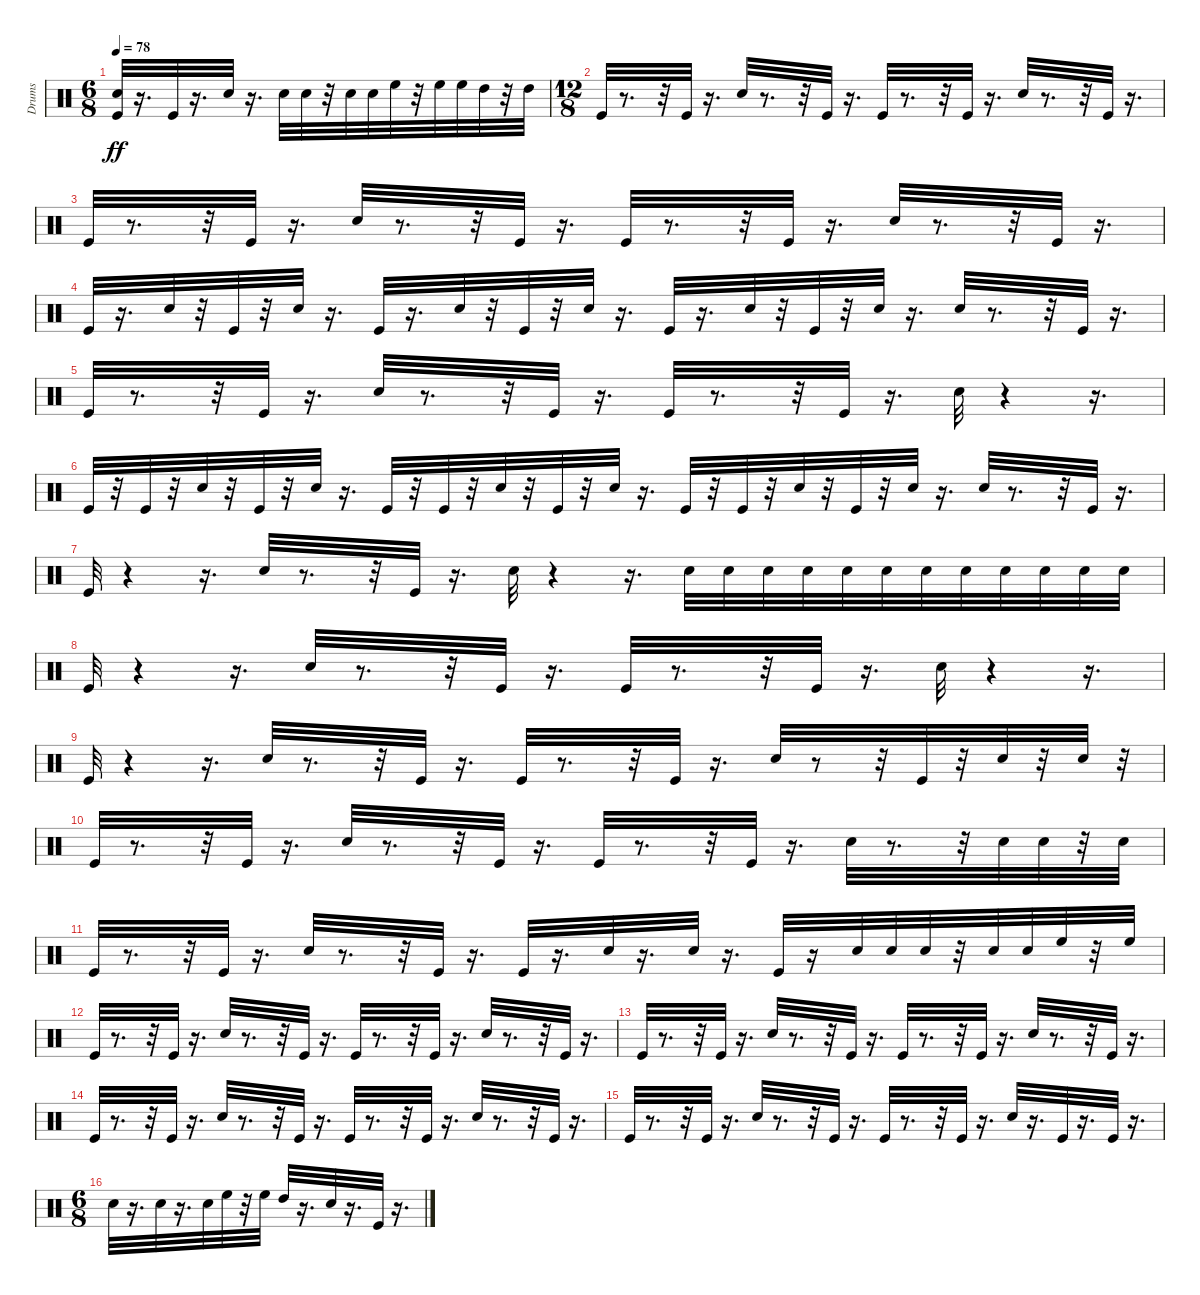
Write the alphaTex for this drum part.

\track ("Drums" "Drums") {instrument percussion}
\staff {score}
\articulation defaults
\ts (6 8)
\tempo 78
\clef neutral
\ks c
("Electric Snare (hit)" "Kick (hit)").32{dy ff} r.16{d} "Kick (hit)".32 r.16{d} "Electric Snare (hit)".32 r.16{d} "Electric Snare (hit)".32 "Electric Snare (hit)".32 r.32 "Electric Snare (hit)".32 "Electric Snare (hit)".32 "High Floor Tom (hit)".32 r.32 "High Floor Tom (hit)".32 "High Floor Tom (hit)".32 "High Tom (hit)".32 r.32 "High Tom (hit)".32 |
\ts (12 8)
"Kick (hit)".32 r.8{d} r.32 "Kick (hit)".32 r.16{d} "Electric Snare (hit)".32 r.8{d} r.32 "Kick (hit)".32 r.16{d} "Kick (hit)".32 r.8{d} r.32 "Kick (hit)".32 r.16{d} "Electric Snare (hit)".32 r.8{d} r.32 "Kick (hit)".32 r.16{d} |
"Kick (hit)".32 r.8{d} r.32 "Kick (hit)".32 r.16{d} "Electric Snare (hit)".32 r.8{d} r.32 "Kick (hit)".32 r.16{d} "Kick (hit)".32 r.8{d} r.32 "Kick (hit)".32 r.16{d} "Electric Snare (hit)".32 r.8{d} r.32 "Kick (hit)".32 r.16{d} |
"Kick (hit)".32 r.16{d} "Electric Snare (hit)".32 r.32 "Kick (hit)".32 r.32 "Electric Snare (hit)".32 r.16{d} "Kick (hit)".32 r.16{d} "Electric Snare (hit)".32 r.32 "Kick (hit)".32 r.32 "Electric Snare (hit)".32 r.16{d} "Kick (hit)".32 r.16{d} "Electric Snare (hit)".32 r.32 "Kick (hit)".32 r.32 "Electric Snare (hit)".32 r.16{d} "Electric Snare (hit)".32 r.8{d} r.32 "Kick (hit)".32 r.16{d} |
"Kick (hit)".32 r.8{d} r.32 "Kick (hit)".32 r.16{d} "Electric Snare (hit)".32 r.8{d} r.32 "Kick (hit)".32 r.16{d} "Kick (hit)".32 r.8{d} r.32 "Kick (hit)".32 r.16{d} "Electric Snare (hit)".32 r.4 r.16{d} |
"Kick (hit)".32 r.32 "Kick (hit)".32 r.32 "Electric Snare (hit)".32 r.32 "Kick (hit)".32 r.32 "Electric Snare (hit)".32 r.16{d} "Kick (hit)".32 r.32 "Kick (hit)".32 r.32 "Electric Snare (hit)".32 r.32 "Kick (hit)".32 r.32 "Electric Snare (hit)".32 r.16{d} "Kick (hit)".32 r.32 "Kick (hit)".32 r.32 "Electric Snare (hit)".32 r.32 "Kick (hit)".32 r.32 "Electric Snare (hit)".32 r.16{d} "Electric Snare (hit)".32 r.8{d} r.32 "Kick (hit)".32 r.16{d} |
"Kick (hit)".32 r.4 r.16{d} "Electric Snare (hit)".32 r.8{d} r.32 "Kick (hit)".32 r.16{d} "Electric Snare (hit)".32 r.4 r.16{d} "Electric Snare (hit)".32 "Electric Snare (hit)".32 "Electric Snare (hit)".32 "Electric Snare (hit)".32 "Electric Snare (hit)".32 "Electric Snare (hit)".32 "Electric Snare (hit)".32 "Electric Snare (hit)".32 "Electric Snare (hit)".32 "Electric Snare (hit)".32 "Electric Snare (hit)".32 "Electric Snare (hit)".32 |
"Kick (hit)".32 r.4 r.16{d} "Electric Snare (hit)".32 r.8{d} r.32 "Kick (hit)".32 r.16{d} "Kick (hit)".32 r.8{d} r.32 "Kick (hit)".32 r.16{d} "Electric Snare (hit)".32 r.4 r.16{d} |
"Kick (hit)".32 r.4 r.16{d} "Electric Snare (hit)".32 r.8{d} r.32 "Kick (hit)".32 r.16{d} "Kick (hit)".32 r.8{d} r.32 "Kick (hit)".32 r.16{d} "Electric Snare (hit)".32 r.8 r.32 "Kick (hit)".32 r.32 "Electric Snare (hit)".32 r.32 "Electric Snare (hit)".32 r.32 |
"Kick (hit)".32 r.8{d} r.32 "Kick (hit)".32 r.16{d} "Electric Snare (hit)".32 r.8{d} r.32 "Kick (hit)".32 r.16{d} "Kick (hit)".32 r.8{d} r.32 "Kick (hit)".32 r.16{d} "Electric Snare (hit)".32 r.8{d} r.32 "Electric Snare (hit)".32 "Electric Snare (hit)".32 r.32 "Electric Snare (hit)".32 |
"Kick (hit)".32 r.8{d} r.32 "Kick (hit)".32 r.16{d} "Electric Snare (hit)".32 r.8{d} r.32 "Kick (hit)".32 r.16{d} "Kick (hit)".32 r.16{d} "Electric Snare (hit)".32 r.16{d} "Electric Snare (hit)".32 r.16{d} "Kick (hit)".32 r.16 "Electric Snare (hit)".32 "Electric Snare (hit)".32 "Electric Snare (hit)".32 r.32 "Electric Snare (hit)".32 "Electric Snare (hit)".32 "High Floor Tom (hit)".32 r.32 "High Floor Tom (hit)".32 |
"Kick (hit)".32 r.8{d} r.32 "Kick (hit)".32 r.16{d} "Electric Snare (hit)".32 r.8{d} r.32 "Kick (hit)".32 r.16{d} "Kick (hit)".32 r.8{d} r.32 "Kick (hit)".32 r.16{d} "Electric Snare (hit)".32 r.8{d} r.32 "Kick (hit)".32 r.16{d} |
"Kick (hit)".32 r.8{d} r.32 "Kick (hit)".32 r.16{d} "Electric Snare (hit)".32 r.8{d} r.32 "Kick (hit)".32 r.16{d} "Kick (hit)".32 r.8{d} r.32 "Kick (hit)".32 r.16{d} "Electric Snare (hit)".32 r.8{d} r.32 "Kick (hit)".32 r.16{d} |
"Kick (hit)".32 r.8{d} r.32 "Kick (hit)".32 r.16{d} "Electric Snare (hit)".32 r.8{d} r.32 "Kick (hit)".32 r.16{d} "Kick (hit)".32 r.8{d} r.32 "Kick (hit)".32 r.16{d} "Electric Snare (hit)".32 r.8{d} r.32 "Kick (hit)".32 r.16{d} |
"Kick (hit)".32 r.8{d} r.32 "Kick (hit)".32 r.16{d} "Electric Snare (hit)".32 r.8{d} r.32 "Kick (hit)".32 r.16{d} "Kick (hit)".32 r.8{d} r.32 "Kick (hit)".32 r.16{d} "Electric Snare (hit)".32 r.16{d} "Kick (hit)".32 r.16{d} "Kick (hit)".32 r.16{d} |
\ts (6 8)
"Electric Snare (hit)".32 r.16{d} "Electric Snare (hit)".32 r.16{d} "Electric Snare (hit)".32 "High Floor Tom (hit)".32 r.32 "High Floor Tom (hit)".32 "High Tom (hit)".32 r.16{d} "Electric Snare (hit)".32 r.16{d} "Kick (hit)".32 r.16{d}
